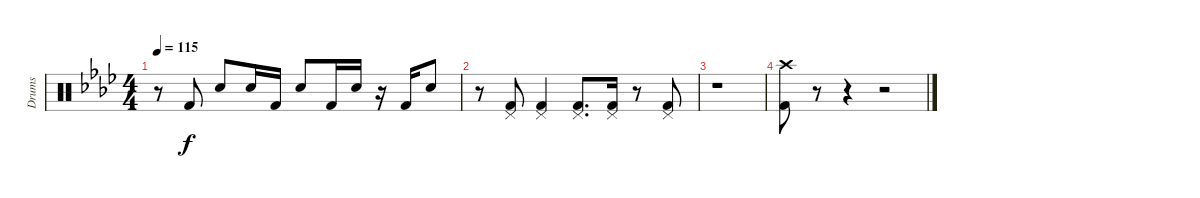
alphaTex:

\track ("Drums" "Drums") {instrument percussion}
\staff {score}
\articulation defaults
\ts (4 4)
\tempo 115
\clef neutral
\ks ab
r.8{dy f} "Kick (hit) 2".8 "Electric Snare (hit)".8 "Electric Snare (hit)".16 "Kick (hit) 2".16 "Electric Snare (hit)".8 "Kick (hit) 2".16 "Electric Snare (hit)".16 r.16 "Kick (hit) 2".16 "Electric Snare (hit)".8 |
r.8 ("Pedal Hi-Hat (hit)" "Kick (hit) 2").8 ("Pedal Hi-Hat (hit)" "Kick (hit) 2").4 ("Pedal Hi-Hat (hit)" "Kick (hit) 2").8{d} ("Pedal Hi-Hat (hit)" "Kick (hit) 2").16 r.8 ("Pedal Hi-Hat (hit)" "Kick (hit) 2").8 |
r.1 |
("Crash high (hit)" "Kick (hit) 2").8 r.8 r.4 r.2
